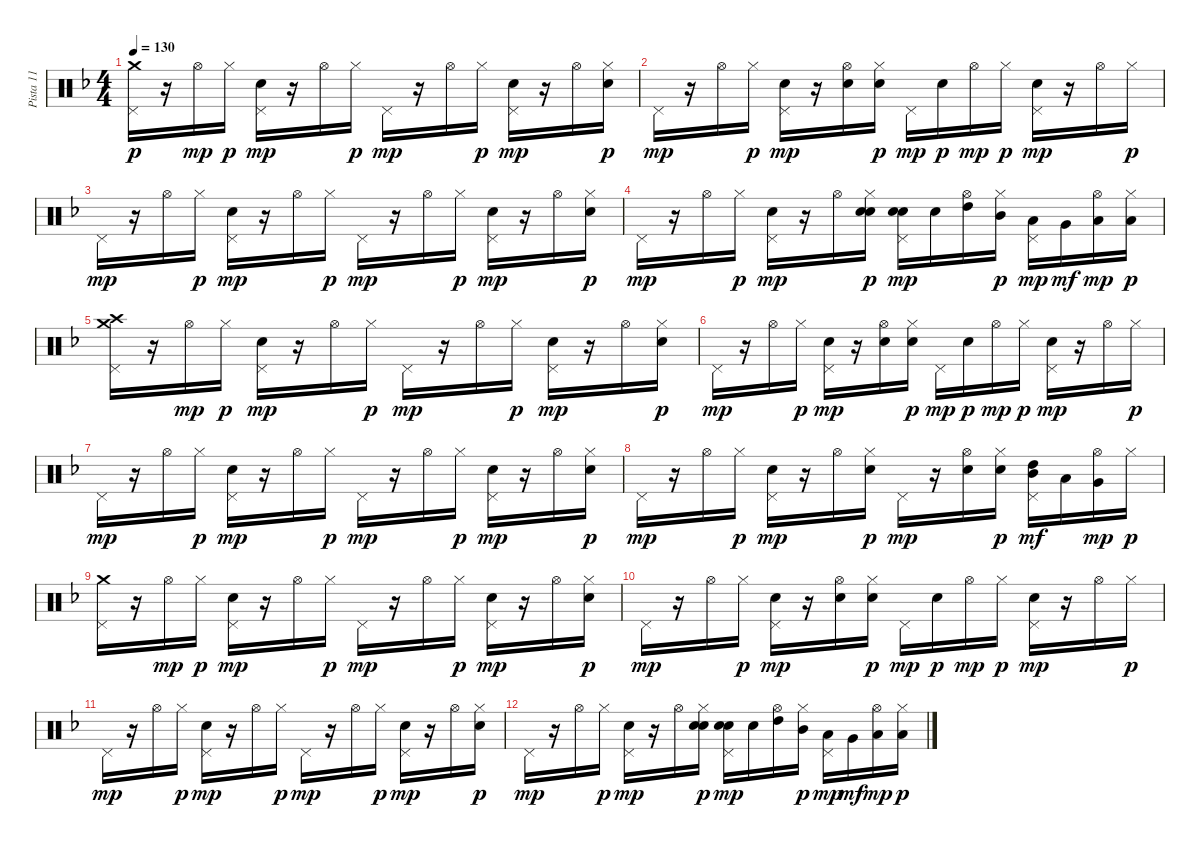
\track ("Pista 11" "Pista 11") {instrument percussion}
\staff {score}
\articulation defaults
\ts (4 4)
\tempo 130
\clef neutral
\ks dminor
("Pedal Hi-Hat (hit)" "Crash medium (hit)").16{dy p} r.16 "Hi-Hat (open)".16{dy mp} "Hi-Hat (closed)".16{dy p} ("Snare (hit) 2" "Pedal Hi-Hat (hit)").16{dy mp} r.16 "Hi-Hat (open)".16 "Hi-Hat (closed)".16{dy p} "Pedal Hi-Hat (hit)".16{dy mp} r.16 "Hi-Hat (open)".16 "Hi-Hat (closed)".16{dy p} ("Snare (hit) 2" "Pedal Hi-Hat (hit)").16{dy mp} r.16 "Hi-Hat (open)".16 ("Electric Snare (hit)" "Hi-Hat (closed)").16{dy p} |
"Pedal Hi-Hat (hit)".16{dy mp} r.16 "Hi-Hat (open)".16 "Hi-Hat (closed)".16{dy p} ("Snare (hit) 2" "Pedal Hi-Hat (hit)").16{dy mp} r.16 ("Snare (hit) 2" "Hi-Hat (open)").16 ("Electric Snare (hit)" "Hi-Hat (closed)").16{dy p} "Pedal Hi-Hat (hit)".16{dy mp} "Snare (hit) 2".16{dy p} "Hi-Hat (open)".16{dy mp} "Hi-Hat (closed)".16{dy p} ("Snare (hit) 2" "Pedal Hi-Hat (hit)").16{dy mp} r.16 "Hi-Hat (open)".16 "Hi-Hat (closed)".16{dy p} |
"Pedal Hi-Hat (hit)".16{dy mp} r.16 "Hi-Hat (open)".16 "Hi-Hat (closed)".16{dy p} ("Snare (hit) 2" "Pedal Hi-Hat (hit)").16{dy mp} r.16 "Hi-Hat (open)".16 "Hi-Hat (closed)".16{dy p} "Pedal Hi-Hat (hit)".16{dy mp} r.16 "Hi-Hat (open)".16 "Hi-Hat (closed)".16{dy p} ("Snare (hit) 2" "Pedal Hi-Hat (hit)").16{dy mp} r.16 "Hi-Hat (open)".16 ("Electric Snare (hit)" "Hi-Hat (closed)").16{dy p} |
"Pedal Hi-Hat (hit)".16{dy mp} r.16 "Hi-Hat (open)".16 "Hi-Hat (closed)".16{dy p} ("Snare (hit) 2" "Pedal Hi-Hat (hit)").16{dy mp} r.16 "Hi-Hat (open)".16 ("Electric Snare (hit)" "Hi-Hat (closed)" "Snare (hit) 2").16{dy p} ("Snare (hit) 2" "Pedal Hi-Hat (hit)" "Snare (hit) 2").16{dy mp} "Snare (hit) 2".16 ("High Tom (hit)" "Hi-Hat (open)").16 ("Mid Tom (hit)" "Hi-Hat (closed)").16{dy p} ("Low Tom (hit)" "Pedal Hi-Hat (hit)").16{dy mp} "Very Low Tom (hit)".16{dy mf} ("Low Floor Tom (hit)" "Hi-Hat (open)").16{dy mp} ("Low Floor Tom (hit)" "Hi-Hat (closed)").16{dy p} |
("Pedal Hi-Hat (hit)" "Crash high (hit)" "Crash medium (hit)").16 r.16 "Hi-Hat (open)".16{dy mp} "Hi-Hat (closed)".16{dy p} ("Snare (hit) 2" "Pedal Hi-Hat (hit)").16{dy mp} r.16 "Hi-Hat (open)".16 "Hi-Hat (closed)".16{dy p} "Pedal Hi-Hat (hit)".16{dy mp} r.16 "Hi-Hat (open)".16 "Hi-Hat (closed)".16{dy p} ("Snare (hit) 2" "Pedal Hi-Hat (hit)").16{dy mp} r.16 "Hi-Hat (open)".16 ("Electric Snare (hit)" "Hi-Hat (closed)").16{dy p} |
"Pedal Hi-Hat (hit)".16{dy mp} r.16 "Hi-Hat (open)".16 "Hi-Hat (closed)".16{dy p} ("Snare (hit) 2" "Pedal Hi-Hat (hit)").16{dy mp} r.16 ("Snare (hit) 2" "Hi-Hat (open)").16 ("Electric Snare (hit)" "Hi-Hat (closed)").16{dy p} "Pedal Hi-Hat (hit)".16{dy mp} "Snare (hit) 2".16{dy p} "Hi-Hat (open)".16{dy mp} "Hi-Hat (closed)".16{dy p} ("Snare (hit) 2" "Pedal Hi-Hat (hit)").16{dy mp} r.16 "Hi-Hat (open)".16 "Hi-Hat (closed)".16{dy p} |
"Pedal Hi-Hat (hit)".16{dy mp} r.16 "Hi-Hat (open)".16 "Hi-Hat (closed)".16{dy p} ("Snare (hit) 2" "Pedal Hi-Hat (hit)").16{dy mp} r.16 "Hi-Hat (open)".16 "Hi-Hat (closed)".16{dy p} "Pedal Hi-Hat (hit)".16{dy mp} r.16 "Hi-Hat (open)".16 "Hi-Hat (closed)".16{dy p} ("Snare (hit) 2" "Pedal Hi-Hat (hit)").16{dy mp} r.16 "Hi-Hat (open)".16 ("Electric Snare (hit)" "Hi-Hat (closed)").16{dy p} |
"Pedal Hi-Hat (hit)".16{dy mp} r.16 "Hi-Hat (open)".16 "Hi-Hat (closed)".16{dy p} ("Snare (hit) 2" "Pedal Hi-Hat (hit)").16{dy mp} r.16 "Hi-Hat (open)".16 ("Electric Snare (hit)" "Hi-Hat (closed)").16{dy p} "Pedal Hi-Hat (hit)".16{dy mp} r.16 ("Snare (hit) 2" "Hi-Hat (open)").16 ("Snare (hit) 2" "Hi-Hat (closed)").16{dy p} ("High Tom (hit)" "Pedal Hi-Hat (hit)" "Mid Tom (hit)").16{dy mf} "Low Tom (hit)".16 ("Very Low Tom (hit)" "Hi-Hat (open)").16{dy mp} "Hi-Hat (closed)".16{dy p} |
("Pedal Hi-Hat (hit)" "Crash medium (hit)").16 r.16 "Hi-Hat (open)".16{dy mp} "Hi-Hat (closed)".16{dy p} ("Snare (hit) 2" "Pedal Hi-Hat (hit)").16{dy mp} r.16 "Hi-Hat (open)".16 "Hi-Hat (closed)".16{dy p} "Pedal Hi-Hat (hit)".16{dy mp} r.16 "Hi-Hat (open)".16 "Hi-Hat (closed)".16{dy p} ("Snare (hit) 2" "Pedal Hi-Hat (hit)").16{dy mp} r.16 "Hi-Hat (open)".16 ("Electric Snare (hit)" "Hi-Hat (closed)").16{dy p} |
"Pedal Hi-Hat (hit)".16{dy mp} r.16 "Hi-Hat (open)".16 "Hi-Hat (closed)".16{dy p} ("Snare (hit) 2" "Pedal Hi-Hat (hit)").16{dy mp} r.16 ("Snare (hit) 2" "Hi-Hat (open)").16 ("Electric Snare (hit)" "Hi-Hat (closed)").16{dy p} "Pedal Hi-Hat (hit)".16{dy mp} "Snare (hit) 2".16{dy p} "Hi-Hat (open)".16{dy mp} "Hi-Hat (closed)".16{dy p} ("Snare (hit) 2" "Pedal Hi-Hat (hit)").16{dy mp} r.16 "Hi-Hat (open)".16 "Hi-Hat (closed)".16{dy p} |
"Pedal Hi-Hat (hit)".16{dy mp} r.16 "Hi-Hat (open)".16 "Hi-Hat (closed)".16{dy p} ("Snare (hit) 2" "Pedal Hi-Hat (hit)").16{dy mp} r.16 "Hi-Hat (open)".16 "Hi-Hat (closed)".16{dy p} "Pedal Hi-Hat (hit)".16{dy mp} r.16 "Hi-Hat (open)".16 "Hi-Hat (closed)".16{dy p} ("Snare (hit) 2" "Pedal Hi-Hat (hit)").16{dy mp} r.16 "Hi-Hat (open)".16 ("Electric Snare (hit)" "Hi-Hat (closed)").16{dy p} |
"Pedal Hi-Hat (hit)".16{dy mp} r.16 "Hi-Hat (open)".16 "Hi-Hat (closed)".16{dy p} ("Snare (hit) 2" "Pedal Hi-Hat (hit)").16{dy mp} r.16 "Hi-Hat (open)".16 ("Electric Snare (hit)" "Hi-Hat (closed)" "Snare (hit) 2").16{dy p} ("Snare (hit) 2" "Pedal Hi-Hat (hit)" "Snare (hit) 2").16{dy mp} "Snare (hit) 2".16 ("High Tom (hit)" "Hi-Hat (open)").16 ("Mid Tom (hit)" "Hi-Hat (closed)").16{dy p} ("Low Tom (hit)" "Pedal Hi-Hat (hit)").16{dy mp} "Very Low Tom (hit)".16{dy mf} ("Low Floor Tom (hit)" "Hi-Hat (open)").16{dy mp} ("Low Floor Tom (hit)" "Hi-Hat (closed)").16{dy p}
